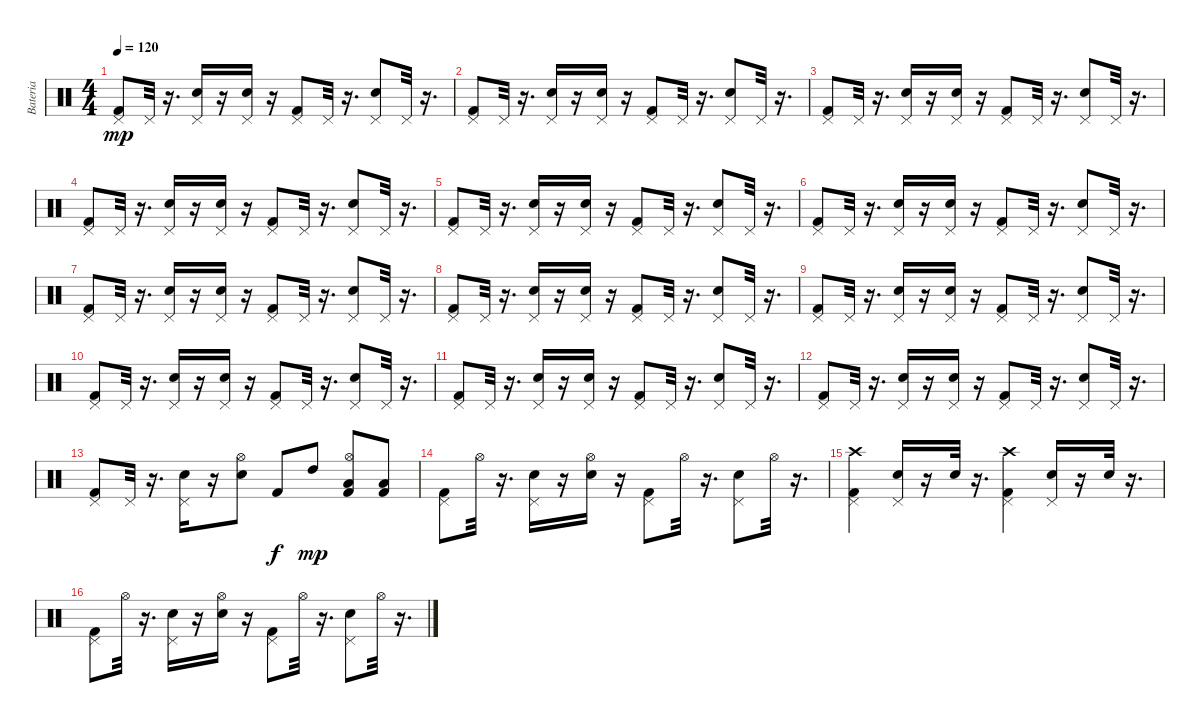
\track ("Bateria" "Bateria") {instrument percussion}
\staff {score}
\articulation defaults
\ts (4 4)
\tempo 120
\clef neutral
\ks c
("Kick (hit) 2" "Pedal Hi-Hat (hit)").8{dy mp} "Pedal Hi-Hat (hit)".32 r.16{d} ("Snare (hit) 2" "Pedal Hi-Hat (hit)").16 r.16 ("Snare (hit) 2" "Pedal Hi-Hat (hit)").16 r.16 ("Kick (hit) 2" "Pedal Hi-Hat (hit)").8 "Pedal Hi-Hat (hit)".32 r.16{d} ("Snare (hit) 2" "Pedal Hi-Hat (hit)").8 "Pedal Hi-Hat (hit)".32 r.16{d} |
("Kick (hit) 2" "Pedal Hi-Hat (hit)").8 "Pedal Hi-Hat (hit)".32 r.16{d} ("Snare (hit) 2" "Pedal Hi-Hat (hit)").16 r.16 ("Snare (hit) 2" "Pedal Hi-Hat (hit)").16 r.16 ("Kick (hit) 2" "Pedal Hi-Hat (hit)").8 "Pedal Hi-Hat (hit)".32 r.16{d} ("Snare (hit) 2" "Pedal Hi-Hat (hit)").8 "Pedal Hi-Hat (hit)".32 r.16{d} |
("Kick (hit) 2" "Pedal Hi-Hat (hit)").8 "Pedal Hi-Hat (hit)".32 r.16{d} ("Snare (hit) 2" "Pedal Hi-Hat (hit)").16 r.16 ("Snare (hit) 2" "Pedal Hi-Hat (hit)").16 r.16 ("Kick (hit) 2" "Pedal Hi-Hat (hit)").8 "Pedal Hi-Hat (hit)".32 r.16{d} ("Snare (hit) 2" "Pedal Hi-Hat (hit)").8 "Pedal Hi-Hat (hit)".32 r.16{d} |
("Kick (hit) 2" "Pedal Hi-Hat (hit)").8 "Pedal Hi-Hat (hit)".32 r.16{d} ("Snare (hit) 2" "Pedal Hi-Hat (hit)").16 r.16 ("Snare (hit) 2" "Pedal Hi-Hat (hit)").16 r.16 ("Kick (hit) 2" "Pedal Hi-Hat (hit)").8 "Pedal Hi-Hat (hit)".32 r.16{d} ("Snare (hit) 2" "Pedal Hi-Hat (hit)").8 "Pedal Hi-Hat (hit)".32 r.16{d} |
("Kick (hit) 2" "Pedal Hi-Hat (hit)").8 "Pedal Hi-Hat (hit)".32 r.16{d} ("Snare (hit) 2" "Pedal Hi-Hat (hit)").16 r.16 ("Snare (hit) 2" "Pedal Hi-Hat (hit)").16 r.16 ("Kick (hit) 2" "Pedal Hi-Hat (hit)").8 "Pedal Hi-Hat (hit)".32 r.16{d} ("Snare (hit) 2" "Pedal Hi-Hat (hit)").8 "Pedal Hi-Hat (hit)".32 r.16{d} |
("Kick (hit) 2" "Pedal Hi-Hat (hit)").8 "Pedal Hi-Hat (hit)".32 r.16{d} ("Snare (hit) 2" "Pedal Hi-Hat (hit)").16 r.16 ("Snare (hit) 2" "Pedal Hi-Hat (hit)").16 r.16 ("Kick (hit) 2" "Pedal Hi-Hat (hit)").8 "Pedal Hi-Hat (hit)".32 r.16{d} ("Snare (hit) 2" "Pedal Hi-Hat (hit)").8 "Pedal Hi-Hat (hit)".32 r.16{d} |
("Kick (hit) 2" "Pedal Hi-Hat (hit)").8 "Pedal Hi-Hat (hit)".32 r.16{d} ("Snare (hit) 2" "Pedal Hi-Hat (hit)").16 r.16 ("Snare (hit) 2" "Pedal Hi-Hat (hit)").16 r.16 ("Kick (hit) 2" "Pedal Hi-Hat (hit)").8 "Pedal Hi-Hat (hit)".32 r.16{d} ("Snare (hit) 2" "Pedal Hi-Hat (hit)").8 "Pedal Hi-Hat (hit)".32 r.16{d} |
("Kick (hit) 2" "Pedal Hi-Hat (hit)").8 "Pedal Hi-Hat (hit)".32 r.16{d} ("Snare (hit) 2" "Pedal Hi-Hat (hit)").16 r.16 ("Snare (hit) 2" "Pedal Hi-Hat (hit)").16 r.16 ("Kick (hit) 2" "Pedal Hi-Hat (hit)").8 "Pedal Hi-Hat (hit)".32 r.16{d} ("Snare (hit) 2" "Pedal Hi-Hat (hit)").8 "Pedal Hi-Hat (hit)".32 r.16{d} |
("Kick (hit) 2" "Pedal Hi-Hat (hit)").8 "Pedal Hi-Hat (hit)".32 r.16{d} ("Snare (hit) 2" "Pedal Hi-Hat (hit)").16 r.16 ("Snare (hit) 2" "Pedal Hi-Hat (hit)").16 r.16 ("Kick (hit) 2" "Pedal Hi-Hat (hit)").8 "Pedal Hi-Hat (hit)".32 r.16{d} ("Snare (hit) 2" "Pedal Hi-Hat (hit)").8 "Pedal Hi-Hat (hit)".32 r.16{d} |
("Kick (hit) 2" "Pedal Hi-Hat (hit)").8 "Pedal Hi-Hat (hit)".32 r.16{d} ("Snare (hit) 2" "Pedal Hi-Hat (hit)").16 r.16 ("Snare (hit) 2" "Pedal Hi-Hat (hit)").16 r.16 ("Kick (hit) 2" "Pedal Hi-Hat (hit)").8 "Pedal Hi-Hat (hit)".32 r.16{d} ("Snare (hit) 2" "Pedal Hi-Hat (hit)").8 "Pedal Hi-Hat (hit)".32 r.16{d} |
("Kick (hit) 2" "Pedal Hi-Hat (hit)").8 "Pedal Hi-Hat (hit)".32 r.16{d} ("Snare (hit) 2" "Pedal Hi-Hat (hit)").16 r.16 ("Snare (hit) 2" "Pedal Hi-Hat (hit)").16 r.16 ("Kick (hit) 2" "Pedal Hi-Hat (hit)").8 "Pedal Hi-Hat (hit)".32 r.16{d} ("Snare (hit) 2" "Pedal Hi-Hat (hit)").8 "Pedal Hi-Hat (hit)".32 r.16{d} |
("Kick (hit) 2" "Pedal Hi-Hat (hit)").8 "Pedal Hi-Hat (hit)".32 r.16{d} ("Snare (hit) 2" "Pedal Hi-Hat (hit)").16 r.16 ("Snare (hit) 2" "Pedal Hi-Hat (hit)").16 r.16 ("Kick (hit) 2" "Pedal Hi-Hat (hit)").8 "Pedal Hi-Hat (hit)".32 r.16{d} ("Snare (hit) 2" "Pedal Hi-Hat (hit)").8 "Pedal Hi-Hat (hit)".32 r.16{d} |
("Kick (hit) 2" "Pedal Hi-Hat (hit)").8 "Pedal Hi-Hat (hit)".32 r.16{d} ("Snare (hit) 2" "Pedal Hi-Hat (hit)").16 r.16 ("Snare (hit) 2" "Hi-Hat (open)").8 "Kick (hit) 2".8{dy f} "High Tom (hit)".8{dy mp} ("Low Tom (hit)" "Hi-Hat (open)" "Kick (hit) 2").8 ("Low Floor Tom (hit)" "Kick (hit) 2").8 |
("Kick (hit) 2" "Pedal Hi-Hat (hit)").8 "Hi-Hat (open)".32 r.16{d} ("Snare (hit) 2" "Pedal Hi-Hat (hit)").16 r.16 ("Snare (hit) 2" "Hi-Hat (open)").16 r.16 ("Kick (hit) 2" "Pedal Hi-Hat (hit)").8 "Hi-Hat (open)".32 r.16{d} ("Snare (hit) 2" "Pedal Hi-Hat (hit)").8 "Hi-Hat (open)".32 r.16{d} |
("Kick (hit) 2" "Pedal Hi-Hat (hit)" "Crash high (hit)").4 ("Snare (hit) 2" "Pedal Hi-Hat (hit)").16 r.16 "Snare (hit) 2".32 r.16{d} ("Kick (hit) 2" "Pedal Hi-Hat (hit)" "Crash high (hit)").4 ("Snare (hit) 2" "Pedal Hi-Hat (hit)").16 r.16 "Snare (hit) 2".32 r.16{d} |
("Kick (hit) 2" "Pedal Hi-Hat (hit)").8 "Hi-Hat (open)".32 r.16{d} ("Snare (hit) 2" "Pedal Hi-Hat (hit)").16 r.16 ("Snare (hit) 2" "Hi-Hat (open)").16 r.16 ("Kick (hit) 2" "Pedal Hi-Hat (hit)").8 "Hi-Hat (open)".32 r.16{d} ("Snare (hit) 2" "Pedal Hi-Hat (hit)").8 "Hi-Hat (open)".32 r.16{d}
